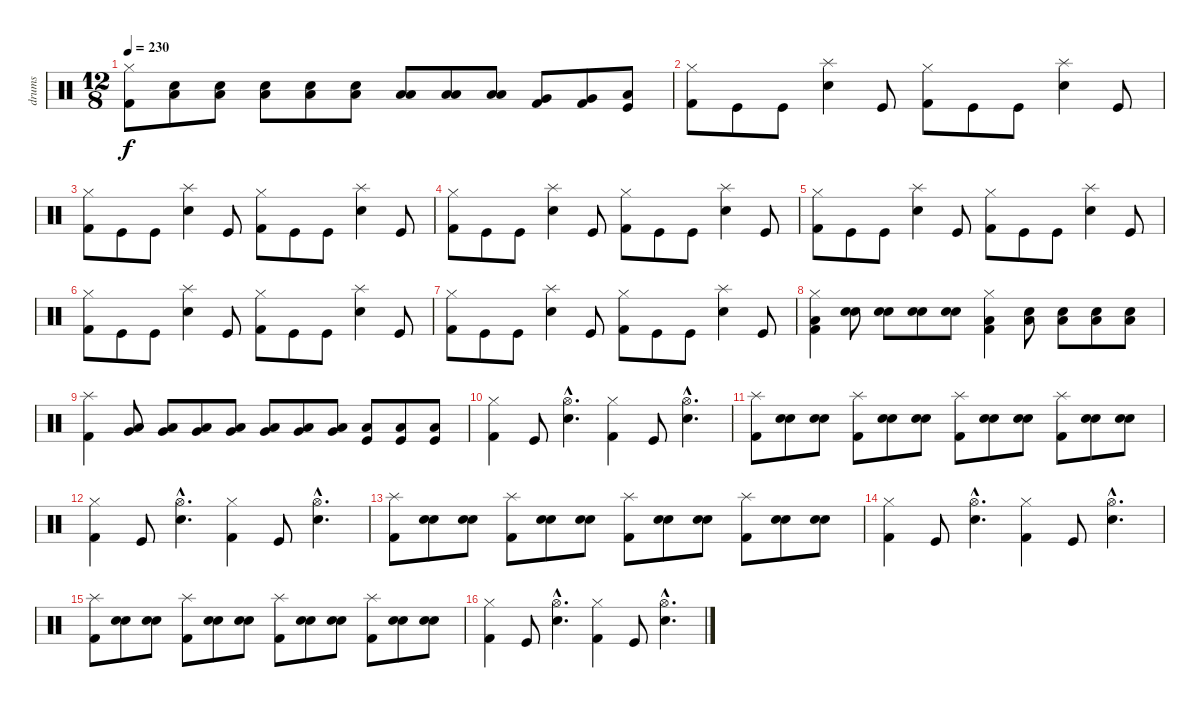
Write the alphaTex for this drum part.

\track ("drums" "drums") {instrument percussion}
\staff {score}
\articulation defaults
\ts (12 8)
\tempo 230
\clef neutral
\ks c
("Hi-Hat (closed)" "Kick (hit) 2").8{dy f} ("Electric Snare (hit)" "Low Tom (hit)").8 ("Low Tom (hit)" "Snare (hit) 2").8 ("Low Tom (hit)" "Snare (hit) 2").8 ("Low Tom (hit)" "Snare (hit) 2").8 ("Low Tom (hit)" "Snare (hit) 2").8 ("Low Tom (hit)" "Low Floor Tom (hit)").8 ("Low Floor Tom (hit)" "Low Tom (hit)").8 ("Low Floor Tom (hit)" "Low Tom (hit)").8 ("Kick (hit) 2" "Very Low Tom (hit)").8 ("Kick (hit) 2" "Very Low Tom (hit)").8 ("Kick (hit)" "Low Floor Tom (hit)").8 |
("Hi-Hat (closed)" "Kick (hit) 2").8 "Kick (hit)".8 "Kick (hit)".8 ("Splash (hit)" "Snare (hit) 2").4 "Kick (hit)".8 ("Hi-Hat (closed)" "Kick (hit) 2").8 "Kick (hit)".8 "Kick (hit)".8 ("Splash (hit)" "Snare (hit) 2").4 "Kick (hit)".8 |
("Hi-Hat (closed)" "Kick (hit) 2").8 "Kick (hit)".8 "Kick (hit)".8 ("Splash (hit)" "Snare (hit) 2").4 "Kick (hit)".8 ("Hi-Hat (closed)" "Kick (hit) 2").8 "Kick (hit)".8 "Kick (hit)".8 ("Splash (hit)" "Snare (hit) 2").4 "Kick (hit)".8 |
("Hi-Hat (closed)" "Kick (hit) 2").8 "Kick (hit)".8 "Kick (hit)".8 ("Splash (hit)" "Snare (hit) 2").4 "Kick (hit)".8 ("Hi-Hat (closed)" "Kick (hit) 2").8 "Kick (hit)".8 "Kick (hit)".8 ("Splash (hit)" "Snare (hit) 2").4 "Kick (hit)".8 |
("Hi-Hat (closed)" "Kick (hit) 2").8 "Kick (hit)".8 "Kick (hit)".8 ("Splash (hit)" "Snare (hit) 2").4 "Kick (hit)".8 ("Hi-Hat (closed)" "Kick (hit) 2").8 "Kick (hit)".8 "Kick (hit)".8 ("Splash (hit)" "Snare (hit) 2").4 "Kick (hit)".8 |
("Hi-Hat (closed)" "Kick (hit) 2").8 "Kick (hit)".8 "Kick (hit)".8 ("Splash (hit)" "Snare (hit) 2").4 "Kick (hit)".8 ("Hi-Hat (closed)" "Kick (hit) 2").8 "Kick (hit)".8 "Kick (hit)".8 ("Splash (hit)" "Snare (hit) 2").4 "Kick (hit)".8 |
("Hi-Hat (closed)" "Kick (hit) 2").8 "Kick (hit)".8 "Kick (hit)".8 ("Splash (hit)" "Snare (hit) 2").4 "Kick (hit)".8 ("Hi-Hat (closed)" "Kick (hit) 2").8 "Kick (hit)".8 "Kick (hit)".8 ("Splash (hit)" "Snare (hit) 2").4 "Kick (hit)".8 |
("Low Floor Tom (hit)" "Hi-Hat (closed)" "Kick (hit) 2").4 ("Electric Snare (hit)" "Snare (hit) 2").8 ("Electric Snare (hit)" "Snare (hit) 2").8 ("Electric Snare (hit)" "Snare (hit) 2").8 ("Electric Snare (hit)" "Snare (hit) 2").8 ("Low Floor Tom (hit)" "Hi-Hat (closed)" "Kick (hit) 2").4 ("Low Tom (hit)" "Snare (hit) 2").8 ("Low Tom (hit)" "Snare (hit) 2").8 ("Low Tom (hit)" "Snare (hit) 2").8 ("Low Tom (hit)" "Snare (hit) 2").8 |
("Splash (hit)" "Kick (hit) 2").4 ("Very Low Tom (hit)" "Low Tom (hit)").8 ("Very Low Tom (hit)" "Low Tom (hit)").8 ("Very Low Tom (hit)" "Low Tom (hit)").8 ("Very Low Tom (hit)" "Low Tom (hit)").8 ("Low Floor Tom (hit)" "Very Low Tom (hit)").8 ("Low Floor Tom (hit)" "Very Low Tom (hit)").8 ("Low Floor Tom (hit)" "Very Low Tom (hit)").8 ("Kick (hit)" "Low Floor Tom (hit)").8 ("Kick (hit)" "Low Floor Tom (hit)").8 ("Kick (hit)" "Low Floor Tom (hit)").8 |
("Hi-Hat (closed)" "Kick (hit) 2").4 "Kick (hit)".8 ("Hi-Hat (open)"{hac} "Snare (hit) 2"{hac}).4{d} ("Hi-Hat (closed)" "Kick (hit) 2").4 "Kick (hit)".8 ("Hi-Hat (open)"{hac} "Snare (hit) 2"{hac}).4{d} |
("Splash (hit)" "Kick (hit) 2").8 ("Electric Snare (hit)" "Snare (hit) 2").8 ("Electric Snare (hit)" "Snare (hit) 2").8 ("Splash (hit)" "Kick (hit) 2").8 ("Electric Snare (hit)" "Snare (hit) 2").8 ("Electric Snare (hit)" "Snare (hit) 2").8 ("Splash (hit)" "Kick (hit) 2").8 ("Electric Snare (hit)" "Snare (hit) 2").8 ("Electric Snare (hit)" "Snare (hit) 2").8 ("Splash (hit)" "Kick (hit) 2").8 ("Snare (hit) 2" "Electric Snare (hit)").8 ("Snare (hit) 2" "Electric Snare (hit)").8 |
("Hi-Hat (closed)" "Kick (hit) 2").4 "Kick (hit)".8 ("Hi-Hat (open)"{hac} "Snare (hit) 2"{hac}).4{d} ("Hi-Hat (closed)" "Kick (hit) 2").4 "Kick (hit)".8 ("Hi-Hat (open)"{hac} "Snare (hit) 2"{hac}).4{d} |
("Splash (hit)" "Kick (hit) 2").8 ("Electric Snare (hit)" "Snare (hit) 2").8 ("Electric Snare (hit)" "Snare (hit) 2").8 ("Splash (hit)" "Kick (hit) 2").8 ("Electric Snare (hit)" "Snare (hit) 2").8 ("Electric Snare (hit)" "Snare (hit) 2").8 ("Splash (hit)" "Kick (hit) 2").8 ("Electric Snare (hit)" "Snare (hit) 2").8 ("Electric Snare (hit)" "Snare (hit) 2").8 ("Splash (hit)" "Kick (hit) 2").8 ("Snare (hit) 2" "Electric Snare (hit)").8 ("Snare (hit) 2" "Electric Snare (hit)").8 |
("Hi-Hat (closed)" "Kick (hit) 2").4 "Kick (hit)".8 ("Hi-Hat (open)"{hac} "Snare (hit) 2"{hac}).4{d} ("Hi-Hat (closed)" "Kick (hit) 2").4 "Kick (hit)".8 ("Hi-Hat (open)"{hac} "Snare (hit) 2"{hac}).4{d} |
("Splash (hit)" "Kick (hit) 2").8 ("Electric Snare (hit)" "Snare (hit) 2").8 ("Electric Snare (hit)" "Snare (hit) 2").8 ("Splash (hit)" "Kick (hit) 2").8 ("Electric Snare (hit)" "Snare (hit) 2").8 ("Electric Snare (hit)" "Snare (hit) 2").8 ("Splash (hit)" "Kick (hit) 2").8 ("Electric Snare (hit)" "Snare (hit) 2").8 ("Electric Snare (hit)" "Snare (hit) 2").8 ("Splash (hit)" "Kick (hit) 2").8 ("Snare (hit) 2" "Electric Snare (hit)").8 ("Snare (hit) 2" "Electric Snare (hit)").8 |
("Hi-Hat (closed)" "Kick (hit) 2").4 "Kick (hit)".8 ("Hi-Hat (open)"{hac} "Snare (hit) 2"{hac}).4{d} ("Hi-Hat (closed)" "Kick (hit) 2").4 "Kick (hit)".8 ("Hi-Hat (open)"{hac} "Snare (hit) 2"{hac}).4{d}
